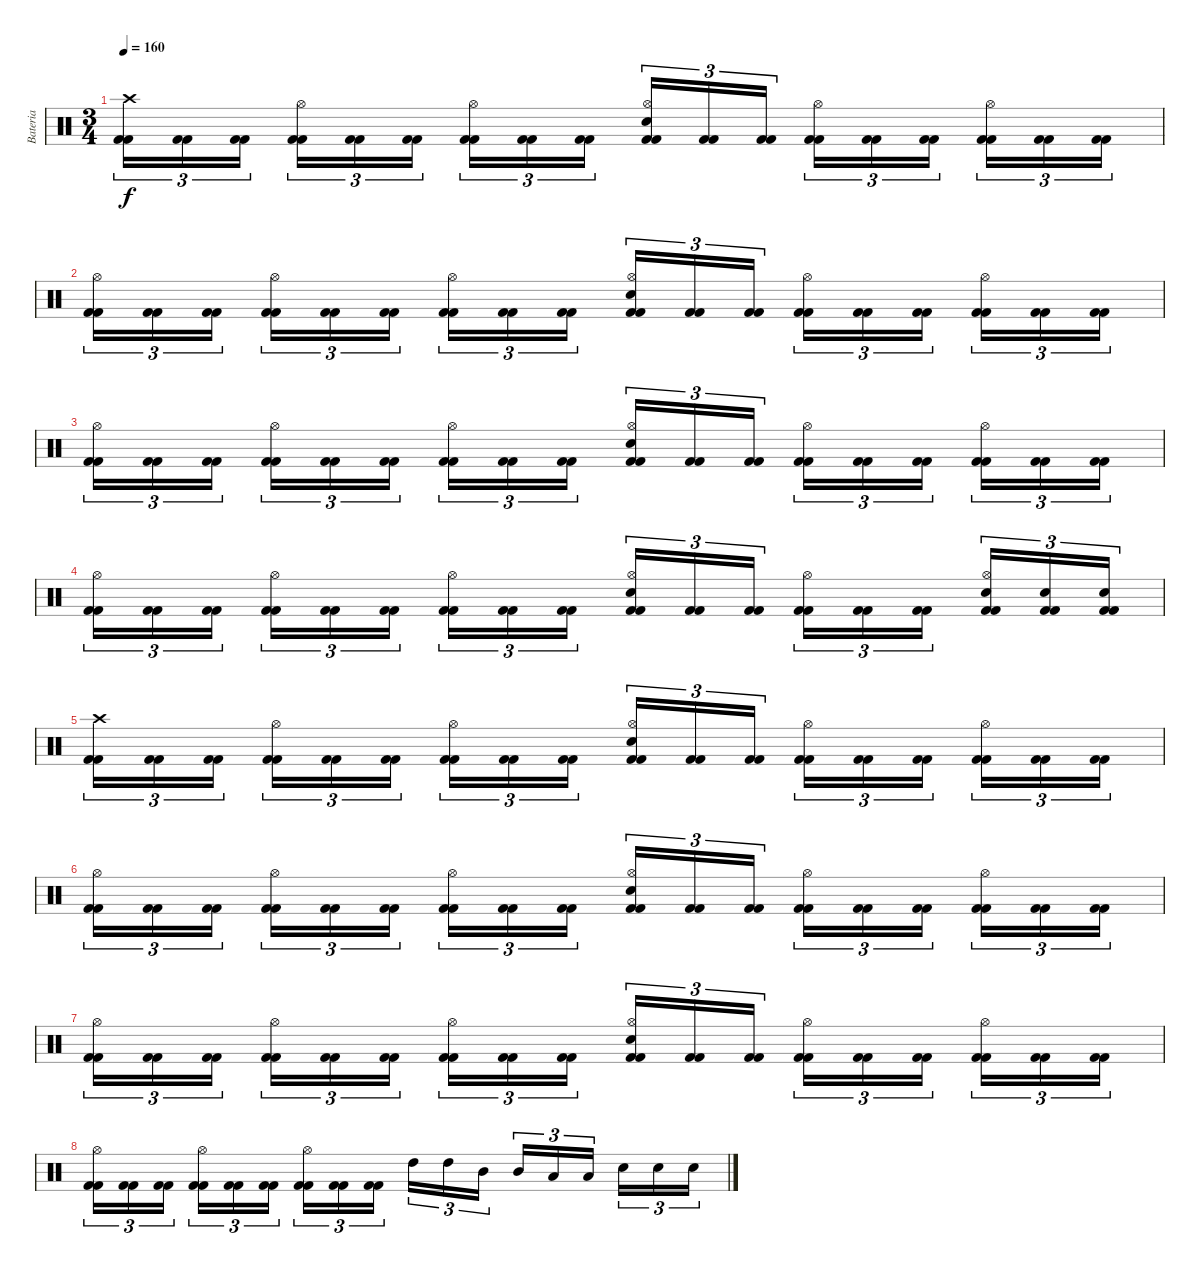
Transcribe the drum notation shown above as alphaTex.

\track ("Bateria" "Bateria") {instrument percussion}
\staff {score}
\articulation defaults
\ts (3 4)
\tempo 160
\clef neutral
\ks c
("Kick (hit) 2" "Kick (hit) 2" "Crash high (hit)").16{tu (3 2) dy f} ("Kick (hit) 2" "Kick (hit) 2").16{tu (3 2)} ("Kick (hit) 2" "Kick (hit) 2").16{tu (3 2)} ("Kick (hit) 2" "Kick (hit) 2" "Hi-Hat (open)").16{tu (3 2)} ("Kick (hit) 2" "Kick (hit) 2").16{tu (3 2)} ("Kick (hit) 2" "Kick (hit) 2").16{tu (3 2)} ("Kick (hit) 2" "Kick (hit) 2" "Hi-Hat (open)").16{tu (3 2)} ("Kick (hit) 2" "Kick (hit) 2").16{tu (3 2)} ("Kick (hit) 2" "Kick (hit) 2").16{tu (3 2)} ("Kick (hit) 2" "Kick (hit) 2" "Snare (hit) 2" "Hi-Hat (open)").16{tu (3 2)} ("Kick (hit) 2" "Kick (hit) 2").16{tu (3 2)} ("Kick (hit) 2" "Kick (hit) 2").16{tu (3 2)} ("Kick (hit) 2" "Kick (hit) 2" "Hi-Hat (open)").16{tu (3 2)} ("Kick (hit) 2" "Kick (hit) 2").16{tu (3 2)} ("Kick (hit) 2" "Kick (hit) 2").16{tu (3 2)} ("Kick (hit) 2" "Kick (hit) 2" "Hi-Hat (open)").16{tu (3 2)} ("Kick (hit) 2" "Kick (hit) 2").16{tu (3 2)} ("Kick (hit) 2" "Kick (hit) 2").16{tu (3 2)} |
("Kick (hit) 2" "Kick (hit) 2" "Hi-Hat (open)").16{tu (3 2)} ("Kick (hit) 2" "Kick (hit) 2").16{tu (3 2)} ("Kick (hit) 2" "Kick (hit) 2").16{tu (3 2)} ("Kick (hit) 2" "Kick (hit) 2" "Hi-Hat (open)").16{tu (3 2)} ("Kick (hit) 2" "Kick (hit) 2").16{tu (3 2)} ("Kick (hit) 2" "Kick (hit) 2").16{tu (3 2)} ("Kick (hit) 2" "Kick (hit) 2" "Hi-Hat (open)").16{tu (3 2)} ("Kick (hit) 2" "Kick (hit) 2").16{tu (3 2)} ("Kick (hit) 2" "Kick (hit) 2").16{tu (3 2)} ("Kick (hit) 2" "Kick (hit) 2" "Snare (hit) 2" "Hi-Hat (open)").16{tu (3 2)} ("Kick (hit) 2" "Kick (hit) 2").16{tu (3 2)} ("Kick (hit) 2" "Kick (hit) 2").16{tu (3 2)} ("Kick (hit) 2" "Kick (hit) 2" "Hi-Hat (open)").16{tu (3 2)} ("Kick (hit) 2" "Kick (hit) 2").16{tu (3 2)} ("Kick (hit) 2" "Kick (hit) 2").16{tu (3 2)} ("Kick (hit) 2" "Kick (hit) 2" "Hi-Hat (open)").16{tu (3 2)} ("Kick (hit) 2" "Kick (hit) 2").16{tu (3 2)} ("Kick (hit) 2" "Kick (hit) 2").16{tu (3 2)} |
("Kick (hit) 2" "Kick (hit) 2" "Hi-Hat (open)").16{tu (3 2)} ("Kick (hit) 2" "Kick (hit) 2").16{tu (3 2)} ("Kick (hit) 2" "Kick (hit) 2").16{tu (3 2)} ("Kick (hit) 2" "Kick (hit) 2" "Hi-Hat (open)").16{tu (3 2)} ("Kick (hit) 2" "Kick (hit) 2").16{tu (3 2)} ("Kick (hit) 2" "Kick (hit) 2").16{tu (3 2)} ("Kick (hit) 2" "Kick (hit) 2" "Hi-Hat (open)").16{tu (3 2)} ("Kick (hit) 2" "Kick (hit) 2").16{tu (3 2)} ("Kick (hit) 2" "Kick (hit) 2").16{tu (3 2)} ("Kick (hit) 2" "Kick (hit) 2" "Snare (hit) 2" "Hi-Hat (open)").16{tu (3 2)} ("Kick (hit) 2" "Kick (hit) 2").16{tu (3 2)} ("Kick (hit) 2" "Kick (hit) 2").16{tu (3 2)} ("Kick (hit) 2" "Kick (hit) 2" "Hi-Hat (open)").16{tu (3 2)} ("Kick (hit) 2" "Kick (hit) 2").16{tu (3 2)} ("Kick (hit) 2" "Kick (hit) 2").16{tu (3 2)} ("Kick (hit) 2" "Kick (hit) 2" "Hi-Hat (open)").16{tu (3 2)} ("Kick (hit) 2" "Kick (hit) 2").16{tu (3 2)} ("Kick (hit) 2" "Kick (hit) 2").16{tu (3 2)} |
("Kick (hit) 2" "Kick (hit) 2" "Hi-Hat (open)").16{tu (3 2)} ("Kick (hit) 2" "Kick (hit) 2").16{tu (3 2)} ("Kick (hit) 2" "Kick (hit) 2").16{tu (3 2)} ("Kick (hit) 2" "Kick (hit) 2" "Hi-Hat (open)").16{tu (3 2)} ("Kick (hit) 2" "Kick (hit) 2").16{tu (3 2)} ("Kick (hit) 2" "Kick (hit) 2").16{tu (3 2)} ("Kick (hit) 2" "Kick (hit) 2" "Hi-Hat (open)").16{tu (3 2)} ("Kick (hit) 2" "Kick (hit) 2").16{tu (3 2)} ("Kick (hit) 2" "Kick (hit) 2").16{tu (3 2)} ("Kick (hit) 2" "Kick (hit) 2" "Snare (hit) 2" "Hi-Hat (open)").16{tu (3 2)} ("Kick (hit) 2" "Kick (hit) 2").16{tu (3 2)} ("Kick (hit) 2" "Kick (hit) 2").16{tu (3 2)} ("Kick (hit) 2" "Kick (hit) 2" "Hi-Hat (open)").16{tu (3 2)} ("Kick (hit) 2" "Kick (hit) 2").16{tu (3 2)} ("Kick (hit) 2" "Kick (hit) 2").16{tu (3 2)} ("Kick (hit) 2" "Kick (hit) 2" "Snare (hit) 2" "Hi-Hat (open)").16{tu (3 2)} ("Kick (hit) 2" "Kick (hit) 2" "Snare (hit) 2").16{tu (3 2)} ("Kick (hit) 2" "Kick (hit) 2" "Snare (hit) 2").16{tu (3 2)} |
("Kick (hit) 2" "Kick (hit) 2" "Crash high (hit)").16{tu (3 2)} ("Kick (hit) 2" "Kick (hit) 2").16{tu (3 2)} ("Kick (hit) 2" "Kick (hit) 2").16{tu (3 2)} ("Kick (hit) 2" "Kick (hit) 2" "Hi-Hat (open)").16{tu (3 2)} ("Kick (hit) 2" "Kick (hit) 2").16{tu (3 2)} ("Kick (hit) 2" "Kick (hit) 2").16{tu (3 2)} ("Kick (hit) 2" "Kick (hit) 2" "Hi-Hat (open)").16{tu (3 2)} ("Kick (hit) 2" "Kick (hit) 2").16{tu (3 2)} ("Kick (hit) 2" "Kick (hit) 2").16{tu (3 2)} ("Kick (hit) 2" "Kick (hit) 2" "Snare (hit) 2" "Hi-Hat (open)").16{tu (3 2)} ("Kick (hit) 2" "Kick (hit) 2").16{tu (3 2)} ("Kick (hit) 2" "Kick (hit) 2").16{tu (3 2)} ("Kick (hit) 2" "Kick (hit) 2" "Hi-Hat (open)").16{tu (3 2)} ("Kick (hit) 2" "Kick (hit) 2").16{tu (3 2)} ("Kick (hit) 2" "Kick (hit) 2").16{tu (3 2)} ("Kick (hit) 2" "Kick (hit) 2" "Hi-Hat (open)").16{tu (3 2)} ("Kick (hit) 2" "Kick (hit) 2").16{tu (3 2)} ("Kick (hit) 2" "Kick (hit) 2").16{tu (3 2)} |
("Kick (hit) 2" "Kick (hit) 2" "Hi-Hat (open)").16{tu (3 2)} ("Kick (hit) 2" "Kick (hit) 2").16{tu (3 2)} ("Kick (hit) 2" "Kick (hit) 2").16{tu (3 2)} ("Kick (hit) 2" "Kick (hit) 2" "Hi-Hat (open)").16{tu (3 2)} ("Kick (hit) 2" "Kick (hit) 2").16{tu (3 2)} ("Kick (hit) 2" "Kick (hit) 2").16{tu (3 2)} ("Kick (hit) 2" "Kick (hit) 2" "Hi-Hat (open)").16{tu (3 2)} ("Kick (hit) 2" "Kick (hit) 2").16{tu (3 2)} ("Kick (hit) 2" "Kick (hit) 2").16{tu (3 2)} ("Kick (hit) 2" "Kick (hit) 2" "Snare (hit) 2" "Hi-Hat (open)").16{tu (3 2)} ("Kick (hit) 2" "Kick (hit) 2").16{tu (3 2)} ("Kick (hit) 2" "Kick (hit) 2").16{tu (3 2)} ("Kick (hit) 2" "Kick (hit) 2" "Hi-Hat (open)").16{tu (3 2)} ("Kick (hit) 2" "Kick (hit) 2").16{tu (3 2)} ("Kick (hit) 2" "Kick (hit) 2").16{tu (3 2)} ("Kick (hit) 2" "Kick (hit) 2" "Hi-Hat (open)").16{tu (3 2)} ("Kick (hit) 2" "Kick (hit) 2").16{tu (3 2)} ("Kick (hit) 2" "Kick (hit) 2").16{tu (3 2)} |
("Kick (hit) 2" "Kick (hit) 2" "Hi-Hat (open)").16{tu (3 2)} ("Kick (hit) 2" "Kick (hit) 2").16{tu (3 2)} ("Kick (hit) 2" "Kick (hit) 2").16{tu (3 2)} ("Kick (hit) 2" "Kick (hit) 2" "Hi-Hat (open)").16{tu (3 2)} ("Kick (hit) 2" "Kick (hit) 2").16{tu (3 2)} ("Kick (hit) 2" "Kick (hit) 2").16{tu (3 2)} ("Kick (hit) 2" "Kick (hit) 2" "Hi-Hat (open)").16{tu (3 2)} ("Kick (hit) 2" "Kick (hit) 2").16{tu (3 2)} ("Kick (hit) 2" "Kick (hit) 2").16{tu (3 2)} ("Kick (hit) 2" "Kick (hit) 2" "Snare (hit) 2" "Hi-Hat (open)").16{tu (3 2)} ("Kick (hit) 2" "Kick (hit) 2").16{tu (3 2)} ("Kick (hit) 2" "Kick (hit) 2").16{tu (3 2)} ("Kick (hit) 2" "Kick (hit) 2" "Hi-Hat (open)").16{tu (3 2)} ("Kick (hit) 2" "Kick (hit) 2").16{tu (3 2)} ("Kick (hit) 2" "Kick (hit) 2").16{tu (3 2)} ("Kick (hit) 2" "Kick (hit) 2" "Hi-Hat (open)").16{tu (3 2)} ("Kick (hit) 2" "Kick (hit) 2").16{tu (3 2)} ("Kick (hit) 2" "Kick (hit) 2").16{tu (3 2)} |
("Kick (hit) 2" "Kick (hit) 2" "Hi-Hat (open)").16{tu (3 2)} ("Kick (hit) 2" "Kick (hit) 2").16{tu (3 2)} ("Kick (hit) 2" "Kick (hit) 2").16{tu (3 2)} ("Kick (hit) 2" "Kick (hit) 2" "Hi-Hat (open)").16{tu (3 2)} ("Kick (hit) 2" "Kick (hit) 2").16{tu (3 2)} ("Kick (hit) 2" "Kick (hit) 2").16{tu (3 2)} ("Kick (hit) 2" "Kick (hit) 2" "Hi-Hat (open)").16{tu (3 2)} ("Kick (hit) 2" "Kick (hit) 2").16{tu (3 2)} ("Kick (hit) 2" "Kick (hit) 2").16{tu (3 2)} "High Tom (hit)".16{tu (3 2)} "High Tom (hit)".16{tu (3 2)} "Mid Tom (hit)".16{tu (3 2)} "Mid Tom (hit)".16{tu (3 2)} "Low Tom (hit)".16{tu (3 2)} "Low Tom (hit)".16{tu (3 2)} "Snare (hit) 2".16{tu (3 2)} "Snare (hit) 2".16{tu (3 2)} "Snare (hit) 2".16{tu (3 2)}
